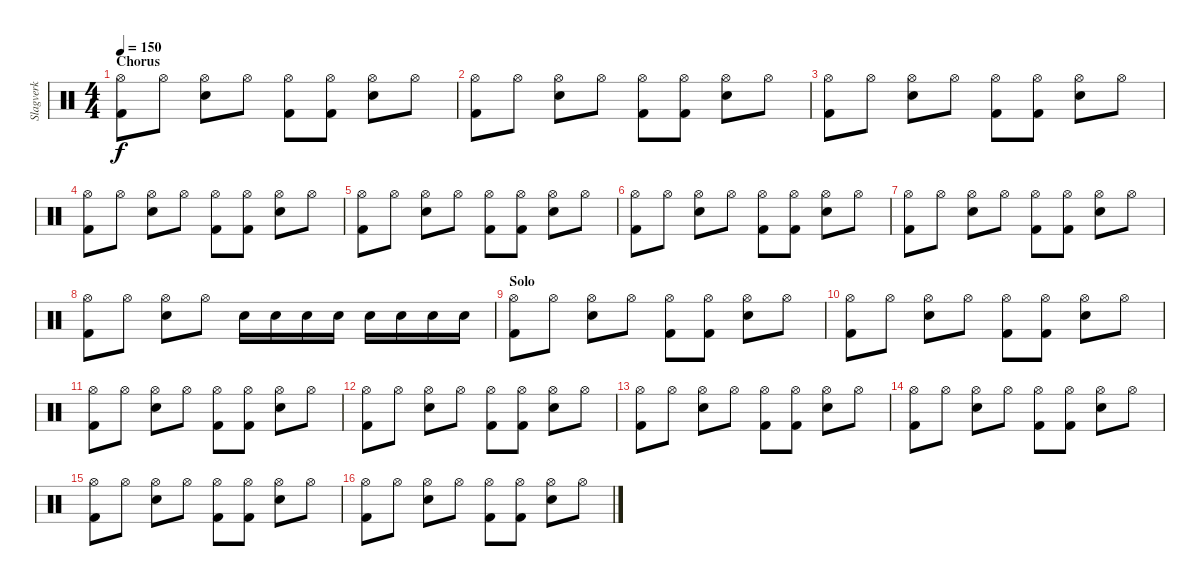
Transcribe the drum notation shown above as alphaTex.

\track ("Slagverk" "Slagverk") {instrument percussion}
\staff {score}
\articulation defaults
\ts (4 4)
\section ("" "Chorus")
\tempo 150
\clef neutral
\ks c
("Hi-Hat (open)" "Kick (hit) 2").8{dy f} "Hi-Hat (open)".8 ("Hi-Hat (open)" "Electric Snare (hit)").8 "Hi-Hat (open)".8 ("Hi-Hat (open)" "Kick (hit) 2").8 ("Hi-Hat (open)" "Kick (hit) 2").8 ("Hi-Hat (open)" "Electric Snare (hit)").8 "Hi-Hat (open)".8 |
("Hi-Hat (open)" "Kick (hit) 2").8 "Hi-Hat (open)".8 ("Hi-Hat (open)" "Electric Snare (hit)").8 "Hi-Hat (open)".8 ("Hi-Hat (open)" "Kick (hit) 2").8 ("Hi-Hat (open)" "Kick (hit) 2").8 ("Hi-Hat (open)" "Electric Snare (hit)").8 "Hi-Hat (open)".8 |
("Hi-Hat (open)" "Kick (hit) 2").8 "Hi-Hat (open)".8 ("Hi-Hat (open)" "Electric Snare (hit)").8 "Hi-Hat (open)".8 ("Hi-Hat (open)" "Kick (hit) 2").8 ("Hi-Hat (open)" "Kick (hit) 2").8 ("Hi-Hat (open)" "Electric Snare (hit)").8 "Hi-Hat (open)".8 |
("Hi-Hat (open)" "Kick (hit) 2").8 "Hi-Hat (open)".8 ("Hi-Hat (open)" "Electric Snare (hit)").8 "Hi-Hat (open)".8 ("Hi-Hat (open)" "Kick (hit) 2").8 ("Hi-Hat (open)" "Kick (hit) 2").8 ("Hi-Hat (open)" "Electric Snare (hit)").8 "Hi-Hat (open)".8 |
("Hi-Hat (open)" "Kick (hit) 2").8 "Hi-Hat (open)".8 ("Hi-Hat (open)" "Electric Snare (hit)").8 "Hi-Hat (open)".8 ("Hi-Hat (open)" "Kick (hit) 2").8 ("Hi-Hat (open)" "Kick (hit) 2").8 ("Hi-Hat (open)" "Electric Snare (hit)").8 "Hi-Hat (open)".8 |
("Hi-Hat (open)" "Kick (hit) 2").8 "Hi-Hat (open)".8 ("Hi-Hat (open)" "Electric Snare (hit)").8 "Hi-Hat (open)".8 ("Hi-Hat (open)" "Kick (hit) 2").8 ("Hi-Hat (open)" "Kick (hit) 2").8 ("Hi-Hat (open)" "Electric Snare (hit)").8 "Hi-Hat (open)".8 |
("Hi-Hat (open)" "Kick (hit) 2").8 "Hi-Hat (open)".8 ("Hi-Hat (open)" "Electric Snare (hit)").8 "Hi-Hat (open)".8 ("Hi-Hat (open)" "Kick (hit) 2").8 ("Hi-Hat (open)" "Kick (hit) 2").8 ("Hi-Hat (open)" "Electric Snare (hit)").8 "Hi-Hat (open)".8 |
("Hi-Hat (open)" "Kick (hit) 2").8 "Hi-Hat (open)".8 ("Hi-Hat (open)" "Electric Snare (hit)").8 "Hi-Hat (open)".8 "Electric Snare (hit)".16 "Electric Snare (hit)".16 "Electric Snare (hit)".16 "Electric Snare (hit)".16 "Electric Snare (hit)".16 "Electric Snare (hit)".16 "Electric Snare (hit)".16 "Electric Snare (hit)".16 |
\section ("" "Solo")
("Hi-Hat (open)" "Kick (hit) 2").8 "Hi-Hat (open)".8 ("Hi-Hat (open)" "Electric Snare (hit)").8 "Hi-Hat (open)".8 ("Hi-Hat (open)" "Kick (hit) 2").8 ("Hi-Hat (open)" "Kick (hit) 2").8 ("Hi-Hat (open)" "Electric Snare (hit)").8 "Hi-Hat (open)".8 |
("Hi-Hat (open)" "Kick (hit) 2").8 "Hi-Hat (open)".8 ("Hi-Hat (open)" "Electric Snare (hit)").8 "Hi-Hat (open)".8 ("Hi-Hat (open)" "Kick (hit) 2").8 ("Hi-Hat (open)" "Kick (hit) 2").8 ("Hi-Hat (open)" "Electric Snare (hit)").8 "Hi-Hat (open)".8 |
("Hi-Hat (open)" "Kick (hit) 2").8 "Hi-Hat (open)".8 ("Hi-Hat (open)" "Electric Snare (hit)").8 "Hi-Hat (open)".8 ("Hi-Hat (open)" "Kick (hit) 2").8 ("Hi-Hat (open)" "Kick (hit) 2").8 ("Hi-Hat (open)" "Electric Snare (hit)").8 "Hi-Hat (open)".8 |
("Hi-Hat (open)" "Kick (hit) 2").8 "Hi-Hat (open)".8 ("Hi-Hat (open)" "Electric Snare (hit)").8 "Hi-Hat (open)".8 ("Hi-Hat (open)" "Kick (hit) 2").8 ("Hi-Hat (open)" "Kick (hit) 2").8 ("Hi-Hat (open)" "Electric Snare (hit)").8 "Hi-Hat (open)".8 |
("Hi-Hat (open)" "Kick (hit) 2").8 "Hi-Hat (open)".8 ("Hi-Hat (open)" "Electric Snare (hit)").8 "Hi-Hat (open)".8 ("Hi-Hat (open)" "Kick (hit) 2").8 ("Hi-Hat (open)" "Kick (hit) 2").8 ("Hi-Hat (open)" "Electric Snare (hit)").8 "Hi-Hat (open)".8 |
("Hi-Hat (open)" "Kick (hit) 2").8 "Hi-Hat (open)".8 ("Hi-Hat (open)" "Electric Snare (hit)").8 "Hi-Hat (open)".8 ("Hi-Hat (open)" "Kick (hit) 2").8 ("Hi-Hat (open)" "Kick (hit) 2").8 ("Hi-Hat (open)" "Electric Snare (hit)").8 "Hi-Hat (open)".8 |
("Hi-Hat (open)" "Kick (hit) 2").8 "Hi-Hat (open)".8 ("Hi-Hat (open)" "Electric Snare (hit)").8 "Hi-Hat (open)".8 ("Hi-Hat (open)" "Kick (hit) 2").8 ("Hi-Hat (open)" "Kick (hit) 2").8 ("Hi-Hat (open)" "Electric Snare (hit)").8 "Hi-Hat (open)".8 |
("Hi-Hat (open)" "Kick (hit) 2").8 "Hi-Hat (open)".8 ("Hi-Hat (open)" "Electric Snare (hit)").8 "Hi-Hat (open)".8 ("Hi-Hat (open)" "Kick (hit) 2").8 ("Hi-Hat (open)" "Kick (hit) 2").8 ("Hi-Hat (open)" "Electric Snare (hit)").8 "Hi-Hat (open)".8
